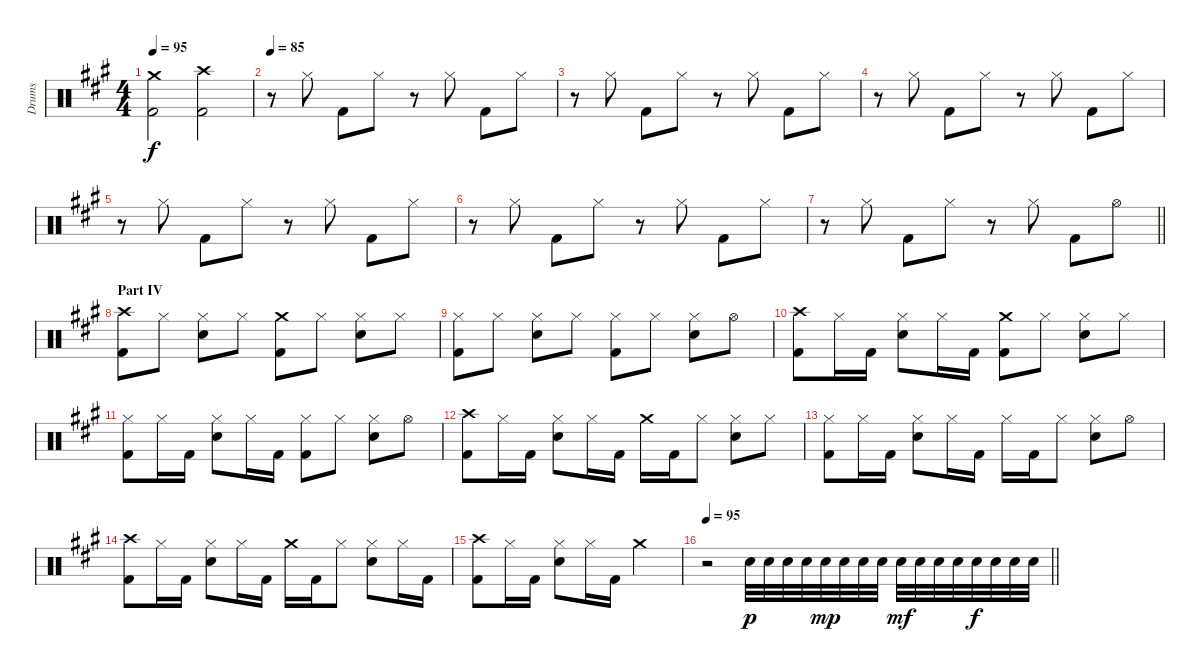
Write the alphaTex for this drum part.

\track ("Drums" "Drums") {instrument percussion}
\staff {score}
\articulation defaults
\ts (4 4)
\tempo 95
\clef neutral
\ks a
("Crash medium (hit)" "Kick (hit) 2").2{dy f} ("Crash high (hit)" "Kick (hit) 2").2 |
\tempo 85
r.8 "Hi-Hat (closed)".8 "Kick (hit) 2".8 "Hi-Hat (closed)".8 r.8 "Hi-Hat (closed)".8 "Kick (hit) 2".8 "Hi-Hat (closed)".8 |
r.8 "Hi-Hat (closed)".8 "Kick (hit) 2".8 "Hi-Hat (closed)".8 r.8 "Hi-Hat (closed)".8 "Kick (hit) 2".8 "Hi-Hat (closed)".8 |
r.8 "Hi-Hat (closed)".8 "Kick (hit) 2".8 "Hi-Hat (closed)".8 r.8 "Hi-Hat (closed)".8 "Kick (hit) 2".8 "Hi-Hat (closed)".8 |
r.8 "Hi-Hat (closed)".8 "Kick (hit) 2".8 "Hi-Hat (closed)".8 r.8 "Hi-Hat (closed)".8 "Kick (hit) 2".8 "Hi-Hat (closed)".8 |
r.8 "Hi-Hat (closed)".8 "Kick (hit) 2".8 "Hi-Hat (closed)".8 r.8 "Hi-Hat (closed)".8 "Kick (hit) 2".8 "Hi-Hat (closed)".8 |
\barLineRight lightlight
r.8 "Hi-Hat (closed)".8 "Kick (hit) 2".8 "Hi-Hat (closed)".8 r.8 "Hi-Hat (closed)".8 "Kick (hit) 2".8 "Hi-Hat (open)".8 |
\section ("" "Part IV")
("Crash high (hit)" "Kick (hit) 2").8 "Hi-Hat (closed)".8 ("Hi-Hat (closed)" "Electric Snare (hit)").8 "Hi-Hat (closed)".8 ("Crash medium (hit)" "Kick (hit) 2").8 "Hi-Hat (closed)".8 ("Hi-Hat (closed)" "Electric Snare (hit)").8 "Hi-Hat (closed)".8 |
("Hi-Hat (closed)" "Kick (hit) 2").8 "Hi-Hat (closed)".8 ("Hi-Hat (closed)" "Electric Snare (hit)").8 "Hi-Hat (closed)".8 ("Hi-Hat (closed)" "Kick (hit) 2").8 "Hi-Hat (closed)".8 ("Hi-Hat (closed)" "Electric Snare (hit)").8 "Hi-Hat (open)".8 |
("Crash high (hit)" "Kick (hit) 2").8 "Hi-Hat (closed)".16 "Kick (hit) 2".16 ("Hi-Hat (closed)" "Electric Snare (hit)").8 "Hi-Hat (closed)".16 "Kick (hit) 2".16 ("Crash medium (hit)" "Kick (hit) 2").8 "Hi-Hat (closed)".8 ("Hi-Hat (closed)" "Electric Snare (hit)").8 "Hi-Hat (closed)".8 |
("Hi-Hat (closed)" "Kick (hit) 2").8 "Hi-Hat (closed)".16 "Kick (hit) 2".16 ("Hi-Hat (closed)" "Electric Snare (hit)").8 "Hi-Hat (closed)".16 "Kick (hit) 2".16 ("Hi-Hat (closed)" "Kick (hit) 2").8 "Hi-Hat (closed)".8 ("Hi-Hat (closed)" "Electric Snare (hit)").8 "Hi-Hat (open)".8 |
("Crash high (hit)" "Kick (hit) 2").8 "Hi-Hat (closed)".16 "Kick (hit) 2".16 ("Hi-Hat (closed)" "Electric Snare (hit)").8 "Hi-Hat (closed)".16 "Kick (hit) 2".16 "Crash medium (hit)".16 "Kick (hit) 2".16 "Hi-Hat (closed)".8 ("Hi-Hat (closed)" "Electric Snare (hit)").8 "Hi-Hat (closed)".8 |
("Hi-Hat (closed)" "Kick (hit) 2").8 "Hi-Hat (closed)".16 "Kick (hit) 2".16 ("Hi-Hat (closed)" "Electric Snare (hit)").8 "Hi-Hat (closed)".16 "Kick (hit) 2".16 "Hi-Hat (closed)".16 "Kick (hit) 2".16 "Hi-Hat (closed)".8 ("Hi-Hat (closed)" "Electric Snare (hit)").8 "Hi-Hat (open)".8 |
("Crash high (hit)" "Kick (hit) 2").8 "Hi-Hat (closed)".16 "Kick (hit) 2".16 ("Hi-Hat (closed)" "Electric Snare (hit)").8 "Hi-Hat (closed)".16 "Kick (hit) 2".16 "Crash medium (hit)".16 "Kick (hit) 2".16 "Hi-Hat (closed)".8 ("Hi-Hat (closed)" "Electric Snare (hit)").8 "Hi-Hat (closed)".16 "Kick (hit) 2".16 |
("Crash high (hit)" "Kick (hit) 2").8 "Hi-Hat (closed)".16 "Kick (hit) 2".16 ("Hi-Hat (closed)" "Electric Snare (hit)").8 "Hi-Hat (closed)".16 "Kick (hit) 2".16 "Crash medium (hit)".2 |
\tempo 95
\barLineRight lightlight
r.2 "Electric Snare (hit)".32{dy p} "Electric Snare (hit)".32 "Electric Snare (hit)".32 "Electric Snare (hit)".32 "Electric Snare (hit)".32{dy mp} "Electric Snare (hit)".32 "Electric Snare (hit)".32 "Electric Snare (hit)".32 "Electric Snare (hit)".32{dy mf} "Electric Snare (hit)".32 "Electric Snare (hit)".32 "Electric Snare (hit)".32 "Electric Snare (hit)".32{dy f} "Electric Snare (hit)".32 "Electric Snare (hit)".32 "Electric Snare (hit)".32
